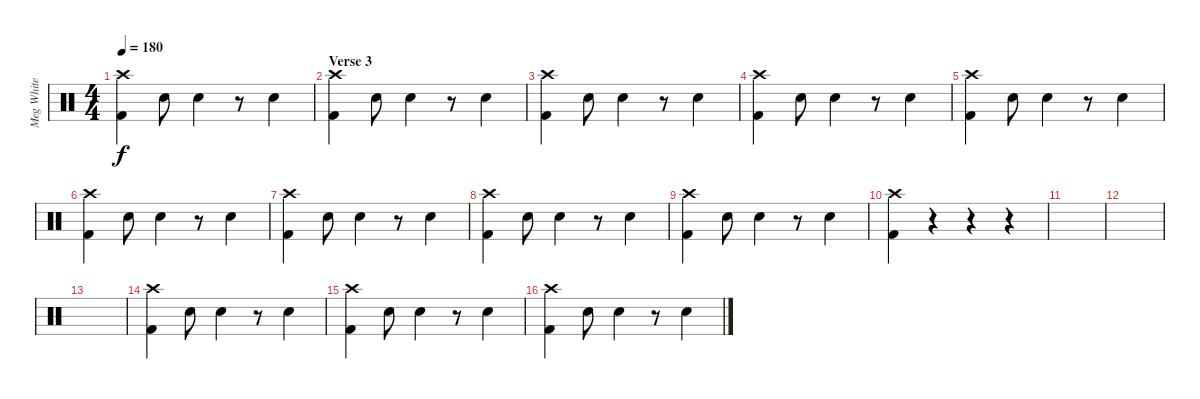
\track ("Meg White" "Meg White") {instrument percussion}
\staff {score}
\articulation defaults
\ts (4 4)
\tempo 180
\clef neutral
\ks c
("Kick (hit) 2" "Crash high (hit)").4{dy f} "Snare (hit) 2".8 "Snare (hit) 2".4 r.8 "Snare (hit) 2".4 |
\section ("" "Verse 3")
("Kick (hit) 2" "Crash high (hit)").4 "Snare (hit) 2".8 "Snare (hit) 2".4 r.8 "Snare (hit) 2".4 |
("Kick (hit) 2" "Crash high (hit)").4 "Snare (hit) 2".8 "Snare (hit) 2".4 r.8 "Snare (hit) 2".4 |
("Kick (hit) 2" "Crash high (hit)").4 "Snare (hit) 2".8 "Snare (hit) 2".4 r.8 "Snare (hit) 2".4 |
("Kick (hit) 2" "Crash high (hit)").4 "Snare (hit) 2".8 "Snare (hit) 2".4 r.8 "Snare (hit) 2".4 |
("Kick (hit) 2" "Crash high (hit)").4 "Snare (hit) 2".8 "Snare (hit) 2".4 r.8 "Snare (hit) 2".4 |
("Kick (hit) 2" "Crash high (hit)").4 "Snare (hit) 2".8 "Snare (hit) 2".4 r.8 "Snare (hit) 2".4 |
("Kick (hit) 2" "Crash high (hit)").4 "Snare (hit) 2".8 "Snare (hit) 2".4 r.8 "Snare (hit) 2".4 |
("Kick (hit) 2" "Crash high (hit)").4 "Snare (hit) 2".8 "Snare (hit) 2".4 r.8 "Snare (hit) 2".4 |
("Kick (hit) 2" "Crash high (hit)").4 r.4 r.4 r.4 |
|
|
|
("Kick (hit) 2" "Crash high (hit)").4 "Snare (hit) 2".8 "Snare (hit) 2".4 r.8 "Snare (hit) 2".4 |
("Kick (hit) 2" "Crash high (hit)").4 "Snare (hit) 2".8 "Snare (hit) 2".4 r.8 "Snare (hit) 2".4 |
("Kick (hit) 2" "Crash high (hit)").4 "Snare (hit) 2".8 "Snare (hit) 2".4 r.8 "Snare (hit) 2".4
